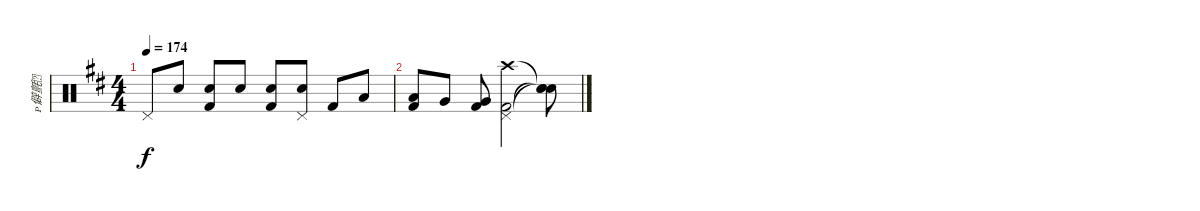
\track ("僻氈" "僻氈") {instrument percussion}
\staff {score}
\articulation defaults
\ts (4 4)
\tempo 174
\clef neutral
\ks d "Pedal Hi-Hat (hit)".8{dy f} "Electric Snare (hit)".8
("Electric Snare (hit)" "Kick (hit) 2").8 "Electric Snare (hit)".8 ("Electric Snare (hit)" "Kick (hit) 2").8 ("Pedal Hi-Hat (hit)" "Electric Snare (hit)").8 "Kick (hit) 2".8 "Low Tom (hit)".8 |
("Low Tom (hit)" "Kick (hit) 2").8 "Very Low Tom (hit)".8 ("Very Low Tom (hit)" "Kick (hit) 2").8 ("Crash high (hit)" "Pedal Hi-Hat (hit)" "Kick (hit) 2").2 ("Snare (hit)"{t} "Snare (hit)"{t} "Snare (hit)"{t}).8
